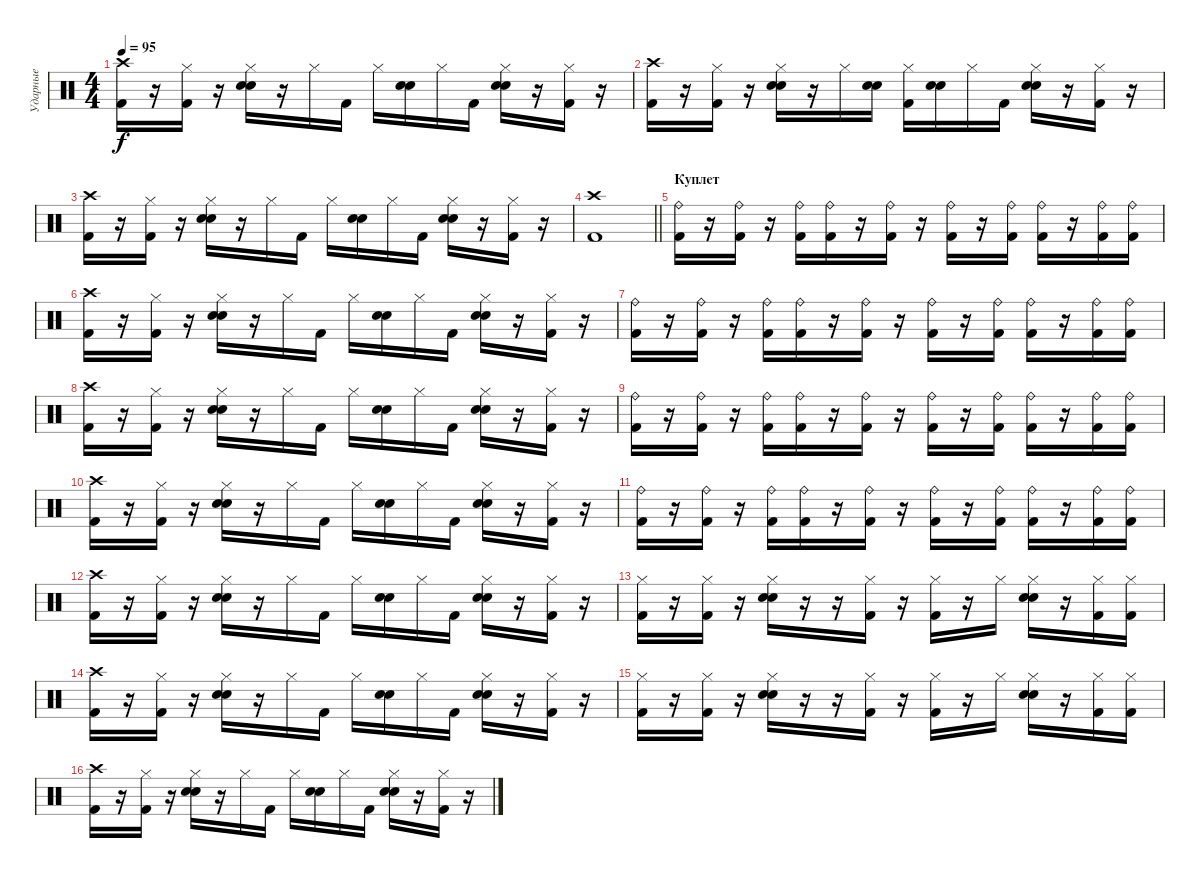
\track ("Ударные" "Ударные") {instrument percussion}
\staff {score}
\articulation defaults
\ts (4 4)
\tempo 95
\clef neutral
\ks c
("Crash high (hit)" "Kick (hit) 2").16{dy f} r.16 ("Hi-Hat (closed)" "Kick (hit) 2").16 r.16 ("Hi-Hat (closed)" "Snare (hit) 2" "Electric Snare (hit)").16 r.16 "Hi-Hat (closed)".16 "Kick (hit) 2".16 "Hi-Hat (closed)".16 ("Snare (hit) 2" "Electric Snare (hit)").16 "Hi-Hat (closed)".16 "Kick (hit) 2".16 ("Hi-Hat (closed)" "Snare (hit) 2" "Electric Snare (hit)").16 r.16 ("Hi-Hat (closed)" "Kick (hit) 2").16 r.16 |
("Crash high (hit)" "Kick (hit) 2").16 r.16 ("Hi-Hat (closed)" "Kick (hit) 2").16 r.16 ("Hi-Hat (closed)" "Snare (hit) 2" "Electric Snare (hit)").16 r.16 "Hi-Hat (closed)".16 ("Snare (hit) 2" "Electric Snare (hit)").16 ("Hi-Hat (closed)" "Kick (hit) 2").16 ("Snare (hit) 2" "Electric Snare (hit)").16 "Hi-Hat (closed)".16 "Kick (hit) 2".16 ("Hi-Hat (closed)" "Snare (hit) 2" "Electric Snare (hit)").16 r.16 ("Hi-Hat (closed)" "Kick (hit) 2").16 r.16 |
("Crash high (hit)" "Kick (hit) 2").16 r.16 ("Hi-Hat (closed)" "Kick (hit) 2").16 r.16 ("Hi-Hat (closed)" "Snare (hit) 2" "Electric Snare (hit)").16 r.16 "Hi-Hat (closed)".16 "Kick (hit) 2".16 "Hi-Hat (closed)".16 ("Snare (hit) 2" "Electric Snare (hit)").16 "Hi-Hat (closed)".16 "Kick (hit) 2".16 ("Hi-Hat (closed)" "Snare (hit) 2" "Electric Snare (hit)").16 r.16 ("Hi-Hat (closed)" "Kick (hit) 2").16 r.16 |
\barLineRight lightlight
("Crash high (hit)" "Kick (hit) 2").1 |
\section ("" "Куплет")
("Ride (bell)" "Kick (hit) 2").16 r.16 ("Ride (bell)" "Kick (hit) 2").16 r.16 ("Ride (bell)" "Kick (hit) 2").16 ("Ride (bell)" "Kick (hit) 2").16 r.16 ("Ride (bell)" "Kick (hit) 2").16 r.16 ("Ride (bell)" "Kick (hit) 2").16 r.16 ("Ride (bell)" "Kick (hit) 2").16 ("Ride (bell)" "Kick (hit) 2").16 r.16 ("Ride (bell)" "Kick (hit) 2").16 ("Ride (bell)" "Kick (hit) 2").16 |
("Crash high (hit)" "Kick (hit) 2").16 r.16 ("Hi-Hat (closed)" "Kick (hit) 2").16 r.16 ("Hi-Hat (closed)" "Snare (hit) 2" "Electric Snare (hit)").16 r.16 "Hi-Hat (closed)".16 "Kick (hit) 2".16 "Hi-Hat (closed)".16 ("Snare (hit) 2" "Electric Snare (hit)").16 "Hi-Hat (closed)".16 "Kick (hit) 2".16 ("Hi-Hat (closed)" "Snare (hit) 2" "Electric Snare (hit)").16 r.16 ("Hi-Hat (closed)" "Kick (hit) 2").16 r.16 |
("Ride (bell)" "Kick (hit) 2").16 r.16 ("Ride (bell)" "Kick (hit) 2").16 r.16 ("Ride (bell)" "Kick (hit) 2").16 ("Ride (bell)" "Kick (hit) 2").16 r.16 ("Ride (bell)" "Kick (hit) 2").16 r.16 ("Ride (bell)" "Kick (hit) 2").16 r.16 ("Ride (bell)" "Kick (hit) 2").16 ("Ride (bell)" "Kick (hit) 2").16 r.16 ("Ride (bell)" "Kick (hit) 2").16 ("Ride (bell)" "Kick (hit) 2").16 |
("Crash high (hit)" "Kick (hit) 2").16 r.16 ("Hi-Hat (closed)" "Kick (hit) 2").16 r.16 ("Hi-Hat (closed)" "Snare (hit) 2" "Electric Snare (hit)").16 r.16 "Hi-Hat (closed)".16 "Kick (hit) 2".16 "Hi-Hat (closed)".16 ("Snare (hit) 2" "Electric Snare (hit)").16 "Hi-Hat (closed)".16 "Kick (hit) 2".16 ("Hi-Hat (closed)" "Snare (hit) 2" "Electric Snare (hit)").16 r.16 ("Hi-Hat (closed)" "Kick (hit) 2").16 r.16 |
("Ride (bell)" "Kick (hit) 2").16 r.16 ("Ride (bell)" "Kick (hit) 2").16 r.16 ("Ride (bell)" "Kick (hit) 2").16 ("Ride (bell)" "Kick (hit) 2").16 r.16 ("Ride (bell)" "Kick (hit) 2").16 r.16 ("Ride (bell)" "Kick (hit) 2").16 r.16 ("Ride (bell)" "Kick (hit) 2").16 ("Ride (bell)" "Kick (hit) 2").16 r.16 ("Ride (bell)" "Kick (hit) 2").16 ("Ride (bell)" "Kick (hit) 2").16 |
("Crash high (hit)" "Kick (hit) 2").16 r.16 ("Hi-Hat (closed)" "Kick (hit) 2").16 r.16 ("Hi-Hat (closed)" "Snare (hit) 2" "Electric Snare (hit)").16 r.16 "Hi-Hat (closed)".16 "Kick (hit) 2".16 "Hi-Hat (closed)".16 ("Snare (hit) 2" "Electric Snare (hit)").16 "Hi-Hat (closed)".16 "Kick (hit) 2".16 ("Hi-Hat (closed)" "Snare (hit) 2" "Electric Snare (hit)").16 r.16 ("Hi-Hat (closed)" "Kick (hit) 2").16 r.16 |
("Ride (bell)" "Kick (hit) 2").16 r.16 ("Ride (bell)" "Kick (hit) 2").16 r.16 ("Ride (bell)" "Kick (hit) 2").16 ("Ride (bell)" "Kick (hit) 2").16 r.16 ("Ride (bell)" "Kick (hit) 2").16 r.16 ("Ride (bell)" "Kick (hit) 2").16 r.16 ("Ride (bell)" "Kick (hit) 2").16 ("Ride (bell)" "Kick (hit) 2").16 r.16 ("Ride (bell)" "Kick (hit) 2").16 ("Ride (bell)" "Kick (hit) 2").16 |
("Crash high (hit)" "Kick (hit) 2").16 r.16 ("Hi-Hat (closed)" "Kick (hit) 2").16 r.16 ("Hi-Hat (closed)" "Snare (hit) 2" "Electric Snare (hit)").16 r.16 "Hi-Hat (closed)".16 "Kick (hit) 2".16 "Hi-Hat (closed)".16 ("Snare (hit) 2" "Electric Snare (hit)").16 "Hi-Hat (closed)".16 "Kick (hit) 2".16 ("Hi-Hat (closed)" "Snare (hit) 2" "Electric Snare (hit)").16 r.16 ("Hi-Hat (closed)" "Kick (hit) 2").16 r.16 |
("Hi-Hat (closed)" "Kick (hit) 2").16 r.16 ("Hi-Hat (closed)" "Kick (hit) 2").16 r.16 ("Hi-Hat (closed)" "Snare (hit) 2" "Electric Snare (hit)").16 r.16 r.16 ("Hi-Hat (closed)" "Kick (hit) 2").16 r.16 ("Hi-Hat (closed)" "Kick (hit) 2").16 r.16 "Hi-Hat (closed)".16 ("Hi-Hat (closed)" "Snare (hit) 2" "Electric Snare (hit)").16 r.16 ("Hi-Hat (closed)" "Kick (hit) 2").16 ("Hi-Hat (closed)" "Kick (hit) 2").16 |
("Crash high (hit)" "Kick (hit) 2").16 r.16 ("Hi-Hat (closed)" "Kick (hit) 2").16 r.16 ("Hi-Hat (closed)" "Snare (hit) 2" "Electric Snare (hit)").16 r.16 "Hi-Hat (closed)".16 "Kick (hit) 2".16 "Hi-Hat (closed)".16 ("Snare (hit) 2" "Electric Snare (hit)").16 "Hi-Hat (closed)".16 "Kick (hit) 2".16 ("Hi-Hat (closed)" "Snare (hit) 2" "Electric Snare (hit)").16 r.16 ("Hi-Hat (closed)" "Kick (hit) 2").16 r.16 |
("Hi-Hat (closed)" "Kick (hit) 2").16 r.16 ("Hi-Hat (closed)" "Kick (hit) 2").16 r.16 ("Hi-Hat (closed)" "Snare (hit) 2" "Electric Snare (hit)").16 r.16 r.16 ("Hi-Hat (closed)" "Kick (hit) 2").16 r.16 ("Hi-Hat (closed)" "Kick (hit) 2").16 r.16 "Hi-Hat (closed)".16 ("Hi-Hat (closed)" "Snare (hit) 2" "Electric Snare (hit)").16 r.16 ("Hi-Hat (closed)" "Kick (hit) 2").16 ("Hi-Hat (closed)" "Kick (hit) 2").16 |
("Crash high (hit)" "Kick (hit) 2").16 r.16 ("Hi-Hat (closed)" "Kick (hit) 2").16 r.16 ("Hi-Hat (closed)" "Snare (hit) 2" "Electric Snare (hit)").16 r.16 "Hi-Hat (closed)".16 "Kick (hit) 2".16 "Hi-Hat (closed)".16 ("Snare (hit) 2" "Electric Snare (hit)").16 "Hi-Hat (closed)".16 "Kick (hit) 2".16 ("Hi-Hat (closed)" "Snare (hit) 2" "Electric Snare (hit)").16 r.16 ("Hi-Hat (closed)" "Kick (hit) 2").16 r.16
